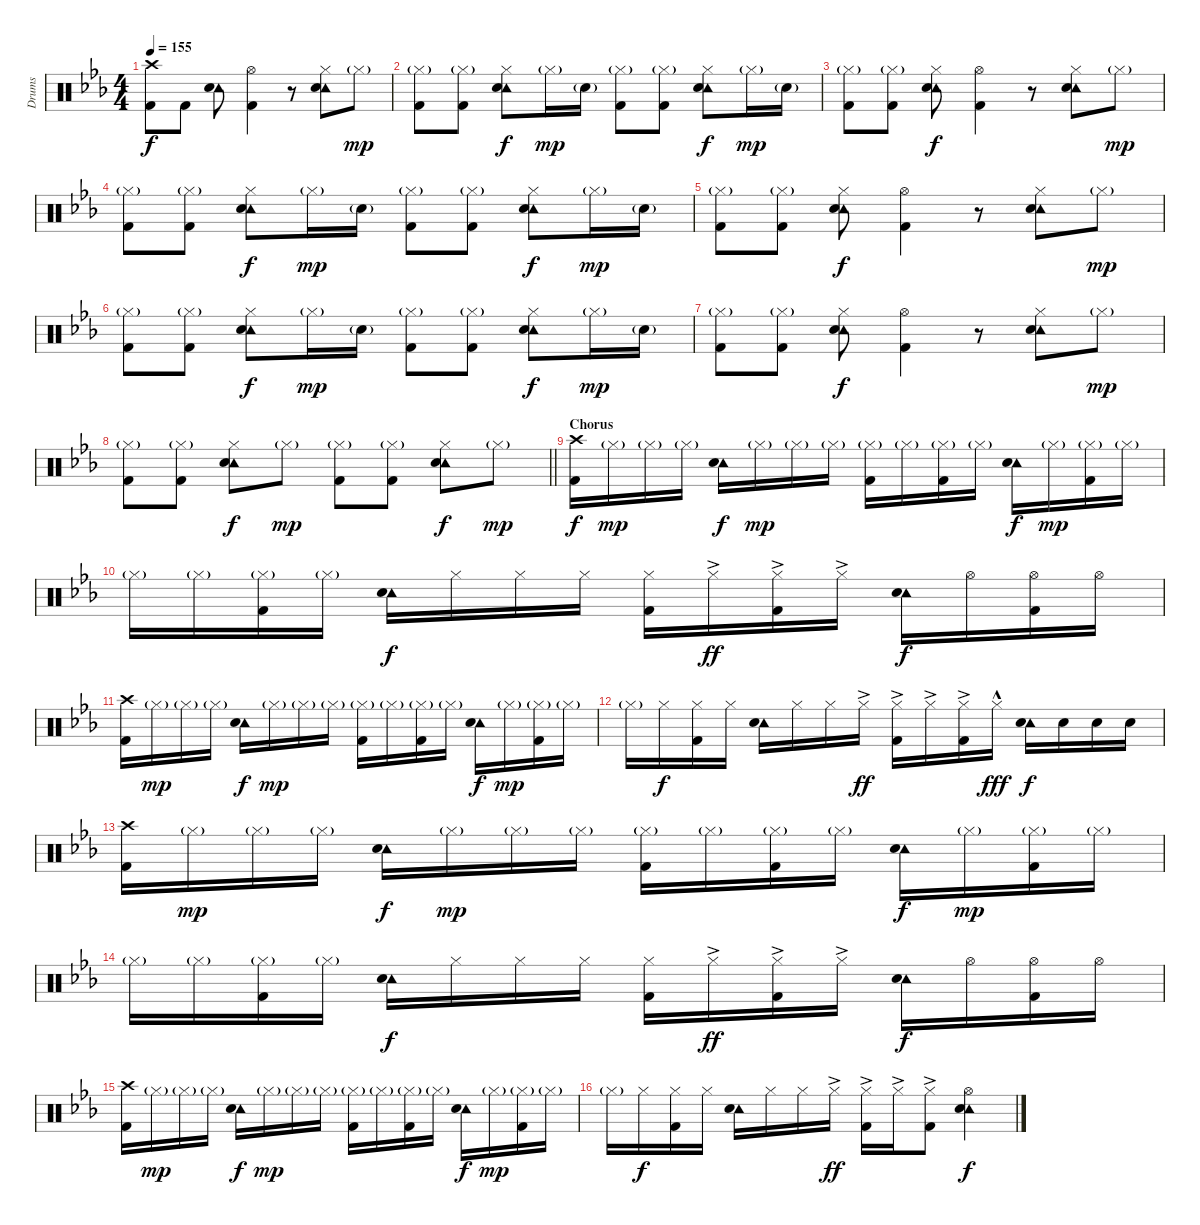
\track ("Drums" "Drums") {instrument percussion}
\staff {score}
\articulation defaults
\ts (4 4)
\tempo 155
\clef neutral
\ks eb
("Crash high (hit)" "Kick (hit) 2").8{dy f} "Kick (hit) 2".8 ("Tambourine (hit)" "Snare (hit) 2").8 ("Hi-Hat (open)" "Kick (hit) 2").4 r.8 ("Tambourine (hit)" "Hi-Hat (closed)" "Snare (hit) 2").8 "Hi-Hat (closed)"{g}.8{dy mp} |
("Hi-Hat (closed)"{g} "Kick (hit) 2").8 ("Hi-Hat (closed)"{g} "Kick (hit) 2").8 ("Tambourine (hit)" "Hi-Hat (closed)" "Snare (hit) 2").8{dy f} "Hi-Hat (closed)"{g}.16{dy mp} "Snare (hit) 2"{g}.16 ("Hi-Hat (closed)"{g} "Kick (hit) 2").8 ("Hi-Hat (closed)"{g} "Kick (hit) 2").8 ("Tambourine (hit)" "Hi-Hat (closed)" "Snare (hit) 2").8{dy f} "Hi-Hat (closed)"{g}.16{dy mp} "Snare (hit) 2"{g}.16 |
("Hi-Hat (closed)"{g} "Kick (hit) 2").8 ("Hi-Hat (closed)"{g} "Kick (hit) 2").8 ("Tambourine (hit)" "Hi-Hat (closed)" "Snare (hit) 2").8{dy f} ("Hi-Hat (open)" "Kick (hit) 2").4 r.8 ("Tambourine (hit)" "Hi-Hat (closed)" "Snare (hit) 2").8 "Hi-Hat (closed)"{g}.8{dy mp} |
("Hi-Hat (closed)"{g} "Kick (hit) 2").8 ("Hi-Hat (closed)"{g} "Kick (hit) 2").8 ("Tambourine (hit)" "Hi-Hat (closed)" "Snare (hit) 2").8{dy f} "Hi-Hat (closed)"{g}.16{dy mp} "Snare (hit) 2"{g}.16 ("Hi-Hat (closed)"{g} "Kick (hit) 2").8 ("Hi-Hat (closed)"{g} "Kick (hit) 2").8 ("Tambourine (hit)" "Hi-Hat (closed)" "Snare (hit) 2").8{dy f} "Hi-Hat (closed)"{g}.16{dy mp} "Snare (hit) 2"{g}.16 |
("Hi-Hat (closed)"{g} "Kick (hit) 2").8 ("Hi-Hat (closed)"{g} "Kick (hit) 2").8 ("Tambourine (hit)" "Hi-Hat (closed)" "Snare (hit) 2").8{dy f} ("Hi-Hat (open)" "Kick (hit) 2").4 r.8 ("Tambourine (hit)" "Hi-Hat (closed)" "Snare (hit) 2").8 "Hi-Hat (closed)"{g}.8{dy mp} |
("Hi-Hat (closed)"{g} "Kick (hit) 2").8 ("Hi-Hat (closed)"{g} "Kick (hit) 2").8 ("Tambourine (hit)" "Hi-Hat (closed)" "Snare (hit) 2").8{dy f} "Hi-Hat (closed)"{g}.16{dy mp} "Snare (hit) 2"{g}.16 ("Hi-Hat (closed)"{g} "Kick (hit) 2").8 ("Hi-Hat (closed)"{g} "Kick (hit) 2").8 ("Tambourine (hit)" "Hi-Hat (closed)" "Snare (hit) 2").8{dy f} "Hi-Hat (closed)"{g}.16{dy mp} "Snare (hit) 2"{g}.16 |
("Hi-Hat (closed)"{g} "Kick (hit) 2").8 ("Hi-Hat (closed)"{g} "Kick (hit) 2").8 ("Tambourine (hit)" "Hi-Hat (closed)" "Snare (hit) 2").8{dy f} ("Hi-Hat (open)" "Kick (hit) 2").4 r.8 ("Tambourine (hit)" "Hi-Hat (closed)" "Snare (hit) 2").8 "Hi-Hat (closed)"{g}.8{dy mp} |
\barLineRight lightlight
("Hi-Hat (closed)"{g} "Kick (hit) 2").8 ("Hi-Hat (closed)"{g} "Kick (hit) 2").8 ("Tambourine (hit)" "Hi-Hat (closed)" "Snare (hit) 2").8{dy f} "Hi-Hat (closed)"{g}.8{dy mp} ("Hi-Hat (closed)"{g} "Kick (hit) 2").8 ("Hi-Hat (closed)"{g} "Kick (hit) 2").8 ("Tambourine (hit)" "Hi-Hat (closed)" "Snare (hit) 2").8{dy f} "Hi-Hat (closed)"{g}.8{dy mp} |
\section ("" "Chorus")
("Crash high (hit)" "Kick (hit) 2").16{dy f} "Hi-Hat (closed)"{g}.16{dy mp} "Hi-Hat (closed)"{g}.16 "Hi-Hat (closed)"{g}.16 ("Tambourine (hit)" "Snare (hit) 2").16{dy f} "Hi-Hat (closed)"{g}.16{dy mp} "Hi-Hat (closed)"{g}.16 "Hi-Hat (closed)"{g}.16 ("Hi-Hat (closed)"{g} "Kick (hit) 2").16 "Hi-Hat (closed)"{g}.16 ("Hi-Hat (closed)"{g} "Kick (hit) 2").16 "Hi-Hat (closed)"{g}.16 ("Tambourine (hit)" "Snare (hit) 2").16{dy f} "Hi-Hat (closed)"{g}.16{dy mp} ("Hi-Hat (closed)"{g} "Kick (hit) 2").16 "Hi-Hat (closed)"{g}.16 |
"Hi-Hat (closed)"{g}.16 "Hi-Hat (closed)"{g}.16 ("Hi-Hat (closed)"{g} "Kick (hit) 2").16 "Hi-Hat (closed)"{g}.16 ("Tambourine (hit)" "Snare (hit) 2").16{dy f} "Hi-Hat (closed)".16 "Hi-Hat (closed)".16 "Hi-Hat (closed)".16 ("Hi-Hat (closed)" "Kick (hit) 2").16 "Hi-Hat (closed)"{ac}.16{dy ff} ("Hi-Hat (closed)"{ac} "Kick (hit) 2").16 "Hi-Hat (closed)"{ac}.16 ("Tambourine (hit)" "Snare (hit) 2").16{dy f} "Hi-Hat (open)".16 ("Hi-Hat (open)" "Kick (hit) 2").16 "Hi-Hat (open)".16 |
("Crash high (hit)" "Kick (hit) 2").16 "Hi-Hat (closed)"{g}.16{dy mp} "Hi-Hat (closed)"{g}.16 "Hi-Hat (closed)"{g}.16 ("Tambourine (hit)" "Snare (hit) 2").16{dy f} "Hi-Hat (closed)"{g}.16{dy mp} "Hi-Hat (closed)"{g}.16 "Hi-Hat (closed)"{g}.16 ("Hi-Hat (closed)"{g} "Kick (hit) 2").16 "Hi-Hat (closed)"{g}.16 ("Hi-Hat (closed)"{g} "Kick (hit) 2").16 "Hi-Hat (closed)"{g}.16 ("Tambourine (hit)" "Snare (hit) 2").16{dy f} "Hi-Hat (closed)"{g}.16{dy mp} ("Hi-Hat (closed)"{g} "Kick (hit) 2").16 "Hi-Hat (closed)"{g}.16 |
"Hi-Hat (closed)"{g}.16 "Hi-Hat (closed)".16{dy f} ("Hi-Hat (closed)" "Kick (hit) 2").16 "Hi-Hat (closed)".16 ("Tambourine (hit)" "Snare (hit) 2").16 "Hi-Hat (closed)".16 "Hi-Hat (closed)".16 "Hi-Hat (closed)"{ac}.16{dy ff} ("Hi-Hat (closed)"{ac} "Kick (hit) 2").16 "Hi-Hat (closed)"{ac}.16 ("Hi-Hat (closed)"{ac} "Kick (hit) 2").16 "Hi-Hat (closed)"{hac}.16{dy fff} ("Tambourine (hit)" "Snare (hit) 2").16{dy f} "Snare (hit) 2".16 "Snare (hit) 2".16 "Snare (hit) 2".16 |
("Crash high (hit)" "Kick (hit) 2").16 "Hi-Hat (closed)"{g}.16{dy mp} "Hi-Hat (closed)"{g}.16 "Hi-Hat (closed)"{g}.16 ("Tambourine (hit)" "Snare (hit) 2").16{dy f} "Hi-Hat (closed)"{g}.16{dy mp} "Hi-Hat (closed)"{g}.16 "Hi-Hat (closed)"{g}.16 ("Hi-Hat (closed)"{g} "Kick (hit) 2").16 "Hi-Hat (closed)"{g}.16 ("Hi-Hat (closed)"{g} "Kick (hit) 2").16 "Hi-Hat (closed)"{g}.16 ("Tambourine (hit)" "Snare (hit) 2").16{dy f} "Hi-Hat (closed)"{g}.16{dy mp} ("Hi-Hat (closed)"{g} "Kick (hit) 2").16 "Hi-Hat (closed)"{g}.16 |
"Hi-Hat (closed)"{g}.16 "Hi-Hat (closed)"{g}.16 ("Hi-Hat (closed)"{g} "Kick (hit) 2").16 "Hi-Hat (closed)"{g}.16 ("Tambourine (hit)" "Snare (hit) 2").16{dy f} "Hi-Hat (closed)".16 "Hi-Hat (closed)".16 "Hi-Hat (closed)".16 ("Hi-Hat (closed)" "Kick (hit) 2").16 "Hi-Hat (closed)"{ac}.16{dy ff} ("Hi-Hat (closed)"{ac} "Kick (hit) 2").16 "Hi-Hat (closed)"{ac}.16 ("Tambourine (hit)" "Snare (hit) 2").16{dy f} "Hi-Hat (open)".16 ("Hi-Hat (open)" "Kick (hit) 2").16 "Hi-Hat (open)".16 |
("Crash high (hit)" "Kick (hit) 2").16 "Hi-Hat (closed)"{g}.16{dy mp} "Hi-Hat (closed)"{g}.16 "Hi-Hat (closed)"{g}.16 ("Tambourine (hit)" "Snare (hit) 2").16{dy f} "Hi-Hat (closed)"{g}.16{dy mp} "Hi-Hat (closed)"{g}.16 "Hi-Hat (closed)"{g}.16 ("Hi-Hat (closed)"{g} "Kick (hit) 2").16 "Hi-Hat (closed)"{g}.16 ("Hi-Hat (closed)"{g} "Kick (hit) 2").16 "Hi-Hat (closed)"{g}.16 ("Tambourine (hit)" "Snare (hit) 2").16{dy f} "Hi-Hat (closed)"{g}.16{dy mp} ("Hi-Hat (closed)"{g} "Kick (hit) 2").16 "Hi-Hat (closed)"{g}.16 |
"Hi-Hat (closed)"{g}.16 "Hi-Hat (closed)".16{dy f} ("Hi-Hat (closed)" "Kick (hit) 2").16 "Hi-Hat (closed)".16 ("Tambourine (hit)" "Snare (hit) 2").16 "Hi-Hat (closed)".16 "Hi-Hat (closed)".16 "Hi-Hat (closed)"{ac}.16{dy ff} ("Hi-Hat (closed)"{ac} "Kick (hit) 2").16 "Hi-Hat (closed)"{ac}.16 ("Hi-Hat (closed)"{ac} "Kick (hit) 2").8 ("Tambourine (hit)" "Hi-Hat (open)" "Snare (hit) 2").4{dy f}
